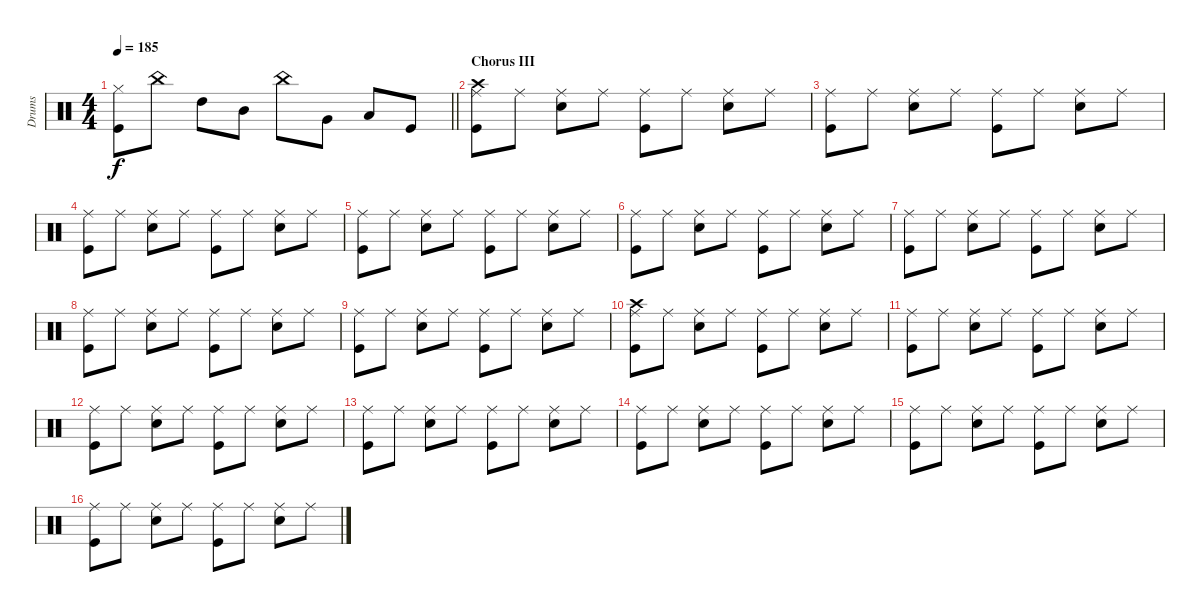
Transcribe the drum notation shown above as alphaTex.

\track ("Drums" "Drums") {instrument percussion}
\staff {score}
\articulation defaults
\ts (4 4)
\tempo 185
\clef neutral
\barLineRight lightlight
\ks c
("Kick (hit)" "Hi-Hat (closed)").8{dy f} "China (hit)".8 "High Tom (hit)".8 "Mid Tom (hit)".8 "China (hit)".8 "Very Low Tom (hit)".8 "Low Floor Tom (hit)".8 "Kick (hit)".8 |
\section ("" "Chorus III")
("Crash high (hit)" "Ride (middle)" "Kick (hit)").8 "Ride (middle)".8 ("Ride (middle)" "Snare (hit) 2").8 "Ride (middle)".8 ("Ride (middle)" "Kick (hit)").8 "Ride (middle)".8 ("Ride (middle)" "Snare (hit) 2").8 "Ride (middle)".8 |
("Ride (middle)" "Kick (hit)").8 "Ride (middle)".8 ("Ride (middle)" "Snare (hit) 2").8 "Ride (middle)".8 ("Ride (middle)" "Kick (hit)").8 "Ride (middle)".8 ("Ride (middle)" "Snare (hit) 2").8 "Ride (middle)".8 |
("Ride (middle)" "Kick (hit)").8 "Ride (middle)".8 ("Ride (middle)" "Snare (hit) 2").8 "Ride (middle)".8 ("Ride (middle)" "Kick (hit)").8 "Ride (middle)".8 ("Ride (middle)" "Snare (hit) 2").8 "Ride (middle)".8 |
("Ride (middle)" "Kick (hit)").8 "Ride (middle)".8 ("Ride (middle)" "Snare (hit) 2").8 "Ride (middle)".8 ("Ride (middle)" "Kick (hit)").8 "Ride (middle)".8 ("Ride (middle)" "Snare (hit) 2").8 "Ride (middle)".8 |
("Ride (middle)" "Kick (hit)").8 "Ride (middle)".8 ("Ride (middle)" "Snare (hit) 2").8 "Ride (middle)".8 ("Ride (middle)" "Kick (hit)").8 "Ride (middle)".8 ("Ride (middle)" "Snare (hit) 2").8 "Ride (middle)".8 |
("Ride (middle)" "Kick (hit)").8 "Ride (middle)".8 ("Ride (middle)" "Snare (hit) 2").8 "Ride (middle)".8 ("Ride (middle)" "Kick (hit)").8 "Ride (middle)".8 ("Ride (middle)" "Snare (hit) 2").8 "Ride (middle)".8 |
("Ride (middle)" "Kick (hit)").8 "Ride (middle)".8 ("Ride (middle)" "Snare (hit) 2").8 "Ride (middle)".8 ("Ride (middle)" "Kick (hit)").8 "Ride (middle)".8 ("Ride (middle)" "Snare (hit) 2").8 "Ride (middle)".8 |
("Ride (middle)" "Kick (hit)").8 "Ride (middle)".8 ("Ride (middle)" "Snare (hit) 2").8 "Ride (middle)".8 ("Ride (middle)" "Kick (hit)").8 "Ride (middle)".8 ("Ride (middle)" "Snare (hit) 2").8 "Ride (middle)".8 |
("Crash high (hit)" "Ride (middle)" "Kick (hit)").8 "Ride (middle)".8 ("Ride (middle)" "Snare (hit) 2").8 "Ride (middle)".8 ("Ride (middle)" "Kick (hit)").8 "Ride (middle)".8 ("Ride (middle)" "Snare (hit) 2").8 "Ride (middle)".8 |
("Ride (middle)" "Kick (hit)").8 "Ride (middle)".8 ("Ride (middle)" "Snare (hit) 2").8 "Ride (middle)".8 ("Ride (middle)" "Kick (hit)").8 "Ride (middle)".8 ("Ride (middle)" "Snare (hit) 2").8 "Ride (middle)".8 |
("Ride (middle)" "Kick (hit)").8 "Ride (middle)".8 ("Ride (middle)" "Snare (hit) 2").8 "Ride (middle)".8 ("Ride (middle)" "Kick (hit)").8 "Ride (middle)".8 ("Ride (middle)" "Snare (hit) 2").8 "Ride (middle)".8 |
("Ride (middle)" "Kick (hit)").8 "Ride (middle)".8 ("Ride (middle)" "Snare (hit) 2").8 "Ride (middle)".8 ("Ride (middle)" "Kick (hit)").8 "Ride (middle)".8 ("Ride (middle)" "Snare (hit) 2").8 "Ride (middle)".8 |
("Ride (middle)" "Kick (hit)").8 "Ride (middle)".8 ("Ride (middle)" "Snare (hit) 2").8 "Ride (middle)".8 ("Ride (middle)" "Kick (hit)").8 "Ride (middle)".8 ("Ride (middle)" "Snare (hit) 2").8 "Ride (middle)".8 |
("Ride (middle)" "Kick (hit)").8 "Ride (middle)".8 ("Ride (middle)" "Snare (hit) 2").8 "Ride (middle)".8 ("Ride (middle)" "Kick (hit)").8 "Ride (middle)".8 ("Ride (middle)" "Snare (hit) 2").8 "Ride (middle)".8 |
("Ride (middle)" "Kick (hit)").8 "Ride (middle)".8 ("Ride (middle)" "Snare (hit) 2").8 "Ride (middle)".8 ("Ride (middle)" "Kick (hit)").8 "Ride (middle)".8 ("Ride (middle)" "Snare (hit) 2").8 "Ride (middle)".8
